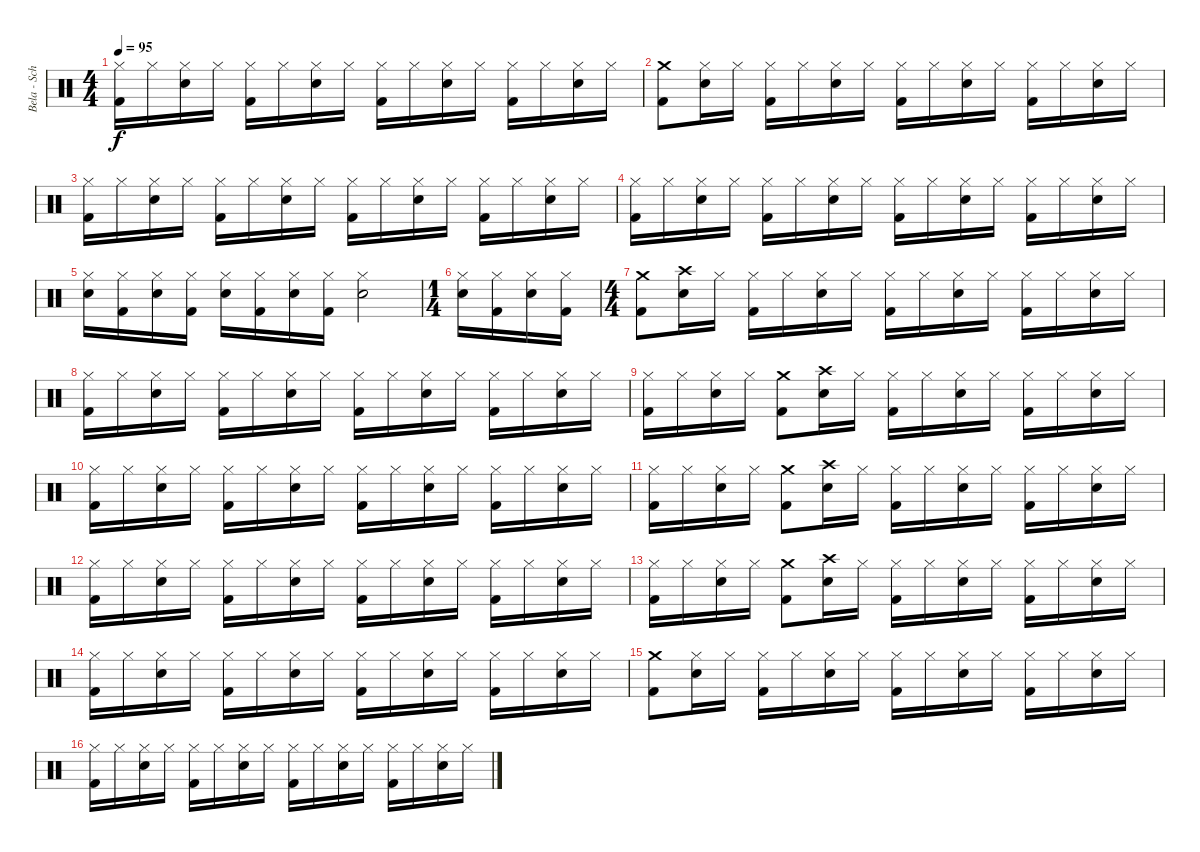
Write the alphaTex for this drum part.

\track ("Bela - Schlagzeug" "Bela - Sch") {instrument percussion}
\staff {score}
\articulation defaults
\ts (4 4)
\tempo 95
\clef neutral
\ks c
("Hi-Hat (closed)" "Kick (hit) 2").16{dy f} "Hi-Hat (closed)".16 ("Hi-Hat (closed)" "Snare (hit) 2").16 "Hi-Hat (closed)".16 ("Hi-Hat (closed)" "Kick (hit) 2").16 "Hi-Hat (closed)".16 ("Hi-Hat (closed)" "Snare (hit) 2").16 "Hi-Hat (closed)".16 ("Hi-Hat (closed)" "Kick (hit) 2").16 "Hi-Hat (closed)".16 ("Hi-Hat (closed)" "Snare (hit) 2").16 "Hi-Hat (closed)".16 ("Hi-Hat (closed)" "Kick (hit) 2").16 "Hi-Hat (closed)".16 ("Hi-Hat (closed)" "Snare (hit) 2").16 "Hi-Hat (closed)".16 |
("Crash medium (hit)" "Kick (hit) 2").8 ("Hi-Hat (closed)" "Snare (hit) 2").16 "Hi-Hat (closed)".16 ("Hi-Hat (closed)" "Kick (hit) 2").16 "Hi-Hat (closed)".16 ("Hi-Hat (closed)" "Snare (hit) 2").16 "Hi-Hat (closed)".16 ("Hi-Hat (closed)" "Kick (hit) 2").16 "Hi-Hat (closed)".16 ("Hi-Hat (closed)" "Snare (hit) 2").16 "Hi-Hat (closed)".16 ("Hi-Hat (closed)" "Kick (hit) 2").16 "Hi-Hat (closed)".16 ("Hi-Hat (closed)" "Snare (hit) 2").16 "Hi-Hat (closed)".16 |
("Hi-Hat (closed)" "Kick (hit) 2").16 "Hi-Hat (closed)".16 ("Hi-Hat (closed)" "Snare (hit) 2").16 "Hi-Hat (closed)".16 ("Hi-Hat (closed)" "Kick (hit) 2").16 "Hi-Hat (closed)".16 ("Hi-Hat (closed)" "Snare (hit) 2").16 "Hi-Hat (closed)".16 ("Hi-Hat (closed)" "Kick (hit) 2").16 "Hi-Hat (closed)".16 ("Hi-Hat (closed)" "Snare (hit) 2").16 "Hi-Hat (closed)".16 ("Hi-Hat (closed)" "Kick (hit) 2").16 "Hi-Hat (closed)".16 ("Hi-Hat (closed)" "Snare (hit) 2").16 "Hi-Hat (closed)".16 |
("Hi-Hat (closed)" "Kick (hit) 2").16 "Hi-Hat (closed)".16 ("Hi-Hat (closed)" "Snare (hit) 2").16 "Hi-Hat (closed)".16 ("Hi-Hat (closed)" "Kick (hit) 2").16 "Hi-Hat (closed)".16 ("Hi-Hat (closed)" "Snare (hit) 2").16 "Hi-Hat (closed)".16 ("Hi-Hat (closed)" "Kick (hit) 2").16 "Hi-Hat (closed)".16 ("Hi-Hat (closed)" "Snare (hit) 2").16 "Hi-Hat (closed)".16 ("Hi-Hat (closed)" "Kick (hit) 2").16 "Hi-Hat (closed)".16 ("Hi-Hat (closed)" "Snare (hit) 2").16 "Hi-Hat (closed)".16 |
("Hi-Hat (closed)" "Snare (hit) 2").16 ("Hi-Hat (closed)" "Kick (hit) 2").16 ("Hi-Hat (closed)" "Snare (hit) 2").16 ("Hi-Hat (closed)" "Kick (hit) 2").16 ("Hi-Hat (closed)" "Snare (hit) 2").16 ("Hi-Hat (closed)" "Kick (hit) 2").16 ("Hi-Hat (closed)" "Snare (hit) 2").16 ("Hi-Hat (closed)" "Kick (hit) 2").16 ("Hi-Hat (closed)" "Snare (hit) 2").2 |
\ts (1 4)
("Hi-Hat (closed)" "Snare (hit) 2").16 ("Hi-Hat (closed)" "Kick (hit) 2").16 ("Hi-Hat (closed)" "Snare (hit) 2").16 ("Hi-Hat (closed)" "Kick (hit) 2").16 |
\ts (4 4)
("Crash medium (hit)" "Kick (hit) 2").8 ("Crash high (hit)" "Snare (hit) 2").16 "Hi-Hat (closed)".16 ("Hi-Hat (closed)" "Kick (hit) 2").16 "Hi-Hat (closed)".16 ("Hi-Hat (closed)" "Snare (hit) 2").16 "Hi-Hat (closed)".16 ("Hi-Hat (closed)" "Kick (hit) 2").16 "Hi-Hat (closed)".16 ("Hi-Hat (closed)" "Snare (hit) 2").16 "Hi-Hat (closed)".16 ("Hi-Hat (closed)" "Kick (hit) 2").16 "Hi-Hat (closed)".16 ("Hi-Hat (closed)" "Snare (hit) 2").16 "Hi-Hat (closed)".16 |
("Hi-Hat (closed)" "Kick (hit) 2").16 "Hi-Hat (closed)".16 ("Hi-Hat (closed)" "Snare (hit) 2").16 "Hi-Hat (closed)".16 ("Hi-Hat (closed)" "Kick (hit) 2").16 "Hi-Hat (closed)".16 ("Hi-Hat (closed)" "Snare (hit) 2").16 "Hi-Hat (closed)".16 ("Hi-Hat (closed)" "Kick (hit) 2").16 "Hi-Hat (closed)".16 ("Hi-Hat (closed)" "Snare (hit) 2").16 "Hi-Hat (closed)".16 ("Hi-Hat (closed)" "Kick (hit) 2").16 "Hi-Hat (closed)".16 ("Hi-Hat (closed)" "Snare (hit) 2").16 "Hi-Hat (closed)".16 |
("Hi-Hat (closed)" "Kick (hit) 2").16 "Hi-Hat (closed)".16 ("Hi-Hat (closed)" "Snare (hit) 2").16 "Hi-Hat (closed)".16 ("Crash medium (hit)" "Kick (hit) 2").8 ("Crash high (hit)" "Snare (hit) 2").16 "Hi-Hat (closed)".16 ("Hi-Hat (closed)" "Kick (hit) 2").16 "Hi-Hat (closed)".16 ("Hi-Hat (closed)" "Snare (hit) 2").16 "Hi-Hat (closed)".16 ("Hi-Hat (closed)" "Kick (hit) 2").16 "Hi-Hat (closed)".16 ("Hi-Hat (closed)" "Snare (hit) 2").16 "Hi-Hat (closed)".16 |
("Hi-Hat (closed)" "Kick (hit) 2").16 "Hi-Hat (closed)".16 ("Hi-Hat (closed)" "Snare (hit) 2").16 "Hi-Hat (closed)".16 ("Hi-Hat (closed)" "Kick (hit) 2").16 "Hi-Hat (closed)".16 ("Hi-Hat (closed)" "Snare (hit) 2").16 "Hi-Hat (closed)".16 ("Hi-Hat (closed)" "Kick (hit) 2").16 "Hi-Hat (closed)".16 ("Hi-Hat (closed)" "Snare (hit) 2").16 "Hi-Hat (closed)".16 ("Hi-Hat (closed)" "Kick (hit) 2").16 "Hi-Hat (closed)".16 ("Hi-Hat (closed)" "Snare (hit) 2").16 "Hi-Hat (closed)".16 |
("Hi-Hat (closed)" "Kick (hit) 2").16 "Hi-Hat (closed)".16 ("Hi-Hat (closed)" "Snare (hit) 2").16 "Hi-Hat (closed)".16 ("Crash medium (hit)" "Kick (hit) 2").8 ("Crash high (hit)" "Snare (hit) 2").16 "Hi-Hat (closed)".16 ("Hi-Hat (closed)" "Kick (hit) 2").16 "Hi-Hat (closed)".16 ("Hi-Hat (closed)" "Snare (hit) 2").16 "Hi-Hat (closed)".16 ("Hi-Hat (closed)" "Kick (hit) 2").16 "Hi-Hat (closed)".16 ("Hi-Hat (closed)" "Snare (hit) 2").16 "Hi-Hat (closed)".16 |
("Hi-Hat (closed)" "Kick (hit) 2").16 "Hi-Hat (closed)".16 ("Hi-Hat (closed)" "Snare (hit) 2").16 "Hi-Hat (closed)".16 ("Hi-Hat (closed)" "Kick (hit) 2").16 "Hi-Hat (closed)".16 ("Hi-Hat (closed)" "Snare (hit) 2").16 "Hi-Hat (closed)".16 ("Hi-Hat (closed)" "Kick (hit) 2").16 "Hi-Hat (closed)".16 ("Hi-Hat (closed)" "Snare (hit) 2").16 "Hi-Hat (closed)".16 ("Hi-Hat (closed)" "Kick (hit) 2").16 "Hi-Hat (closed)".16 ("Hi-Hat (closed)" "Snare (hit) 2").16 "Hi-Hat (closed)".16 |
("Hi-Hat (closed)" "Kick (hit) 2").16 "Hi-Hat (closed)".16 ("Hi-Hat (closed)" "Snare (hit) 2").16 "Hi-Hat (closed)".16 ("Crash medium (hit)" "Kick (hit) 2").8 ("Crash high (hit)" "Snare (hit) 2").16 "Hi-Hat (closed)".16 ("Hi-Hat (closed)" "Kick (hit) 2").16 "Hi-Hat (closed)".16 ("Hi-Hat (closed)" "Snare (hit) 2").16 "Hi-Hat (closed)".16 ("Hi-Hat (closed)" "Kick (hit) 2").16 "Hi-Hat (closed)".16 ("Hi-Hat (closed)" "Snare (hit) 2").16 "Hi-Hat (closed)".16 |
("Hi-Hat (closed)" "Kick (hit) 2").16 "Hi-Hat (closed)".16 ("Hi-Hat (closed)" "Snare (hit) 2").16 "Hi-Hat (closed)".16 ("Hi-Hat (closed)" "Kick (hit) 2").16 "Hi-Hat (closed)".16 ("Hi-Hat (closed)" "Snare (hit) 2").16 "Hi-Hat (closed)".16 ("Hi-Hat (closed)" "Kick (hit) 2").16 "Hi-Hat (closed)".16 ("Hi-Hat (closed)" "Snare (hit) 2").16 "Hi-Hat (closed)".16 ("Hi-Hat (closed)" "Kick (hit) 2").16 "Hi-Hat (closed)".16 ("Hi-Hat (closed)" "Snare (hit) 2").16 "Hi-Hat (closed)".16 |
("Crash medium (hit)" "Kick (hit) 2").8 ("Hi-Hat (closed)" "Snare (hit) 2").16 "Hi-Hat (closed)".16 ("Hi-Hat (closed)" "Kick (hit) 2").16 "Hi-Hat (closed)".16 ("Hi-Hat (closed)" "Snare (hit) 2").16 "Hi-Hat (closed)".16 ("Hi-Hat (closed)" "Kick (hit) 2").16 "Hi-Hat (closed)".16 ("Hi-Hat (closed)" "Snare (hit) 2").16 "Hi-Hat (closed)".16 ("Hi-Hat (closed)" "Kick (hit) 2").16 "Hi-Hat (closed)".16 ("Hi-Hat (closed)" "Snare (hit) 2").16 "Hi-Hat (closed)".16 |
("Hi-Hat (closed)" "Kick (hit) 2").16 "Hi-Hat (closed)".16 ("Hi-Hat (closed)" "Snare (hit) 2").16 "Hi-Hat (closed)".16 ("Hi-Hat (closed)" "Kick (hit) 2").16 "Hi-Hat (closed)".16 ("Hi-Hat (closed)" "Snare (hit) 2").16 "Hi-Hat (closed)".16 ("Hi-Hat (closed)" "Kick (hit) 2").16 "Hi-Hat (closed)".16 ("Hi-Hat (closed)" "Snare (hit) 2").16 "Hi-Hat (closed)".16 ("Hi-Hat (closed)" "Kick (hit) 2").16 "Hi-Hat (closed)".16 ("Hi-Hat (closed)" "Snare (hit) 2").16 "Hi-Hat (closed)".16
